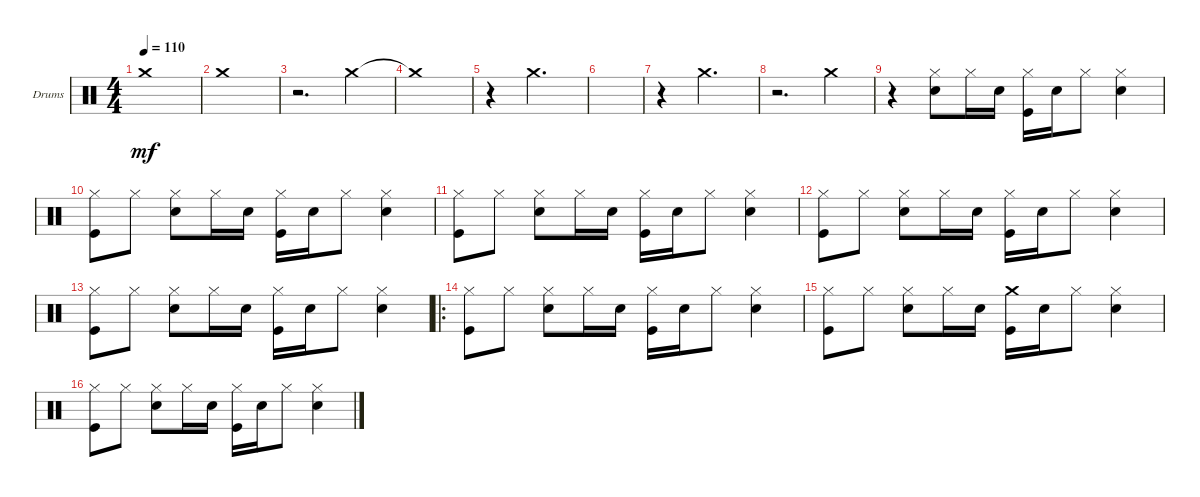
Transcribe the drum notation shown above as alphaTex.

\bracketExtendMode groupsimilarinstruments
\firstSystemTrackNameOrientation horizontal
\otherSystemsTrackNameOrientation horizontal
\track ("Drumkit" "Drums") {instrument percussion}
\staff {score}
\articulation defaults
\ts (4 4)
\beaming (8 2 2 2 2)
\tempo 110
\clef neutral
\ks c "Crash medium (hit)".1{dy mf}
|
"Crash medium (hit)".1 |
r.2{d} "Crash medium (hit)".4 |
"Crash medium (hit)"{t}.1 |
r.4 "Crash medium (hit)".2{d} |
|
r.4 "Crash medium (hit)".2{d} |
r.2{d} "Crash medium (hit)".4 |
r.4 ("Hi-Hat (closed)" "Snare (hit) 2").8 "Hi-Hat (closed)".16 "Snare (hit) 2".16 ("Hi-Hat (closed)" "Kick (hit)").16 "Snare (hit) 2".16 "Hi-Hat (closed)".8 ("Hi-Hat (closed)" "Snare (hit) 2").4 |
("Hi-Hat (closed)" "Kick (hit)").8 "Hi-Hat (closed)".8 ("Hi-Hat (closed)" "Snare (hit) 2").8 "Hi-Hat (closed)".16 "Snare (hit) 2".16 ("Hi-Hat (closed)" "Kick (hit)").16 "Snare (hit) 2".16 "Hi-Hat (closed)".8 ("Hi-Hat (closed)" "Snare (hit) 2").4 |
("Hi-Hat (closed)" "Kick (hit)").8 "Hi-Hat (closed)".8 ("Hi-Hat (closed)" "Snare (hit) 2").8 "Hi-Hat (closed)".16 "Snare (hit) 2".16 ("Hi-Hat (closed)" "Kick (hit)").16 "Snare (hit) 2".16 "Hi-Hat (closed)".8 ("Hi-Hat (closed)" "Snare (hit) 2").4 |
("Hi-Hat (closed)" "Kick (hit)").8 "Hi-Hat (closed)".8 ("Hi-Hat (closed)" "Snare (hit) 2").8 "Hi-Hat (closed)".16 "Snare (hit) 2".16 ("Hi-Hat (closed)" "Kick (hit)").16 "Snare (hit) 2".16 "Hi-Hat (closed)".8 ("Hi-Hat (closed)" "Snare (hit) 2").4 |
("Hi-Hat (closed)" "Kick (hit)").8 "Hi-Hat (closed)".8 ("Hi-Hat (closed)" "Snare (hit) 2").8 "Hi-Hat (closed)".16 "Snare (hit) 2".16 ("Hi-Hat (closed)" "Kick (hit)").16 "Snare (hit) 2".16 "Hi-Hat (closed)".8 ("Hi-Hat (closed)" "Snare (hit) 2").4 |
\ro
("Hi-Hat (closed)" "Kick (hit)").8 "Hi-Hat (closed)".8 ("Hi-Hat (closed)" "Snare (hit) 2").8 "Hi-Hat (closed)".16 "Snare (hit) 2".16 ("Hi-Hat (closed)" "Kick (hit)").16 "Snare (hit) 2".16 "Hi-Hat (closed)".8 ("Hi-Hat (closed)" "Snare (hit) 2").4 |
("Hi-Hat (closed)" "Kick (hit)").8 "Hi-Hat (closed)".8 ("Hi-Hat (closed)" "Snare (hit) 2").8 "Hi-Hat (closed)".16 "Snare (hit) 2".16 ("Kick (hit)" "Crash medium (hit)").16 "Snare (hit) 2".16 "Hi-Hat (closed)".8 ("Hi-Hat (closed)" "Snare (hit) 2").4 |
("Hi-Hat (closed)" "Kick (hit)").8 "Hi-Hat (closed)".8 ("Hi-Hat (closed)" "Snare (hit) 2").8 "Hi-Hat (closed)".16 "Snare (hit) 2".16 ("Hi-Hat (closed)" "Kick (hit)").16 "Snare (hit) 2".16 "Hi-Hat (closed)".8 ("Hi-Hat (closed)" "Snare (hit) 2").4
